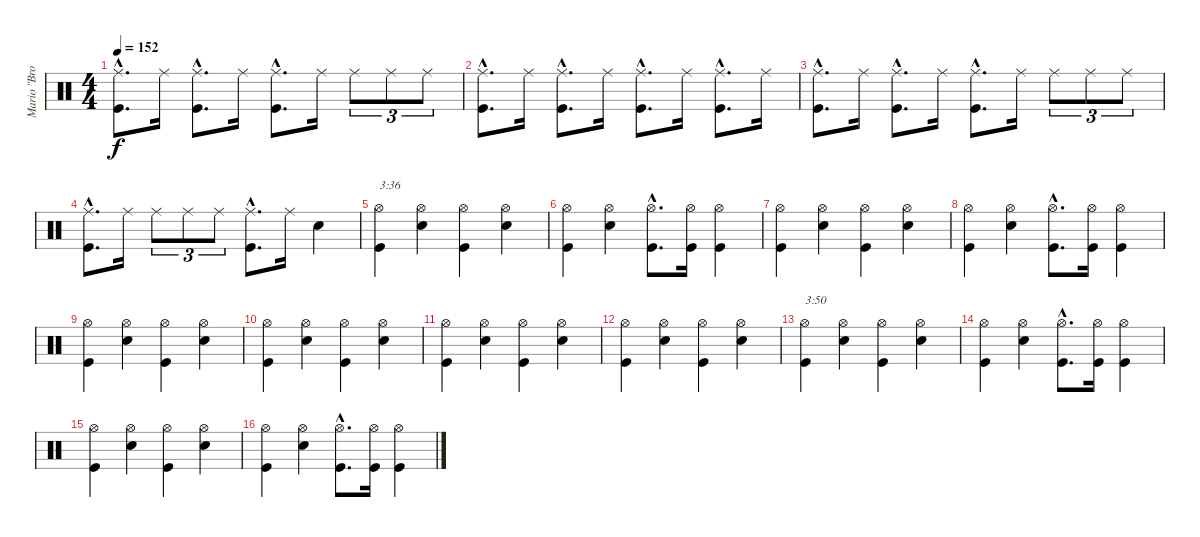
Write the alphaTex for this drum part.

\track ("Mario \"Bros\" Carvajal" "Mario \"Bro") {instrument percussion}
\staff {score}
\articulation defaults
\ts (4 4)
\tempo 152
\clef neutral
\ks c
("Kick (hit)"{hac} "Ride (middle)"{hac}).8{d dy f} "Ride (middle)".16 ("Kick (hit)"{hac} "Ride (middle)"{hac}).8{d} "Ride (middle)".16 ("Kick (hit)"{hac} "Ride (middle)"{hac}).8{d} "Ride (middle)".16 "Ride (middle)".8{tu (3 2)} "Ride (middle)".8{tu (3 2)} "Ride (middle)".8{tu (3 2)} |
("Kick (hit)"{hac} "Ride (middle)"{hac}).8{d} "Ride (middle)".16 ("Kick (hit)"{hac} "Ride (middle)"{hac}).8{d} "Ride (middle)".16 ("Kick (hit)"{hac} "Ride (middle)"{hac}).8{d} "Ride (middle)".16 ("Kick (hit)"{hac} "Ride (middle)"{hac}).8{d} "Ride (middle)".16 |
("Kick (hit)"{hac} "Ride (middle)"{hac}).8{d} "Ride (middle)".16 ("Kick (hit)"{hac} "Ride (middle)"{hac}).8{d} "Ride (middle)".16 ("Kick (hit)"{hac} "Ride (middle)"{hac}).8{d} "Ride (middle)".16 "Ride (middle)".8{tu (3 2)} "Ride (middle)".8{tu (3 2)} "Ride (middle)".8{tu (3 2)} |
("Kick (hit)"{hac} "Ride (middle)"{hac}).8{d} "Ride (middle)".16 "Ride (middle)".8{tu (3 2)} "Ride (middle)".8{tu (3 2)} "Ride (middle)".8{tu (3 2)} ("Kick (hit)"{hac} "Ride (middle)"{hac}).8{d} "Ride (middle)".16 "Snare (hit) 2".4 |
("Kick (hit)" "Hi-Hat (open)").4{txt "3:36"} ("Snare (hit) 2" "Hi-Hat (open)").4 ("Kick (hit)" "Hi-Hat (open)").4 ("Snare (hit) 2" "Hi-Hat (open)").4 |
("Kick (hit)" "Hi-Hat (open)").4 ("Snare (hit) 2" "Hi-Hat (open)").4 ("Kick (hit)"{hac} "Hi-Hat (open)"{hac}).8{d} ("Kick (hit)" "Hi-Hat (open)").16 ("Kick (hit)" "Hi-Hat (open)").4 |
("Kick (hit)" "Hi-Hat (open)").4 ("Snare (hit) 2" "Hi-Hat (open)").4 ("Kick (hit)" "Hi-Hat (open)").4 ("Snare (hit) 2" "Hi-Hat (open)").4 |
("Kick (hit)" "Hi-Hat (open)").4 ("Snare (hit) 2" "Hi-Hat (open)").4 ("Kick (hit)"{hac} "Hi-Hat (open)"{hac}).8{d} ("Kick (hit)" "Hi-Hat (open)").16 ("Kick (hit)" "Hi-Hat (open)").4 |
("Kick (hit)" "Hi-Hat (open)").4 ("Snare (hit) 2" "Hi-Hat (open)").4 ("Kick (hit)" "Hi-Hat (open)").4 ("Snare (hit) 2" "Hi-Hat (open)").4 |
("Kick (hit)" "Hi-Hat (open)").4 ("Snare (hit) 2" "Hi-Hat (open)").4 ("Kick (hit)" "Hi-Hat (open)").4 ("Snare (hit) 2" "Hi-Hat (open)").4 |
("Kick (hit)" "Hi-Hat (open)").4 ("Snare (hit) 2" "Hi-Hat (open)").4 ("Kick (hit)" "Hi-Hat (open)").4 ("Snare (hit) 2" "Hi-Hat (open)").4 |
("Kick (hit)" "Hi-Hat (open)").4 ("Snare (hit) 2" "Hi-Hat (open)").4 ("Kick (hit)" "Hi-Hat (open)").4 ("Snare (hit) 2" "Hi-Hat (open)").4 |
("Kick (hit)" "Hi-Hat (open)").4{txt "3:50"} ("Snare (hit) 2" "Hi-Hat (open)").4 ("Kick (hit)" "Hi-Hat (open)").4 ("Snare (hit) 2" "Hi-Hat (open)").4 |
("Kick (hit)" "Hi-Hat (open)").4 ("Snare (hit) 2" "Hi-Hat (open)").4 ("Kick (hit)"{hac} "Hi-Hat (open)"{hac}).8{d} ("Kick (hit)" "Hi-Hat (open)").16 ("Kick (hit)" "Hi-Hat (open)").4 |
("Kick (hit)" "Hi-Hat (open)").4 ("Snare (hit) 2" "Hi-Hat (open)").4 ("Kick (hit)" "Hi-Hat (open)").4 ("Snare (hit) 2" "Hi-Hat (open)").4 |
("Kick (hit)" "Hi-Hat (open)").4 ("Snare (hit) 2" "Hi-Hat (open)").4 ("Kick (hit)"{hac} "Hi-Hat (open)"{hac}).8{d} ("Kick (hit)" "Hi-Hat (open)").16 ("Kick (hit)" "Hi-Hat (open)").4
